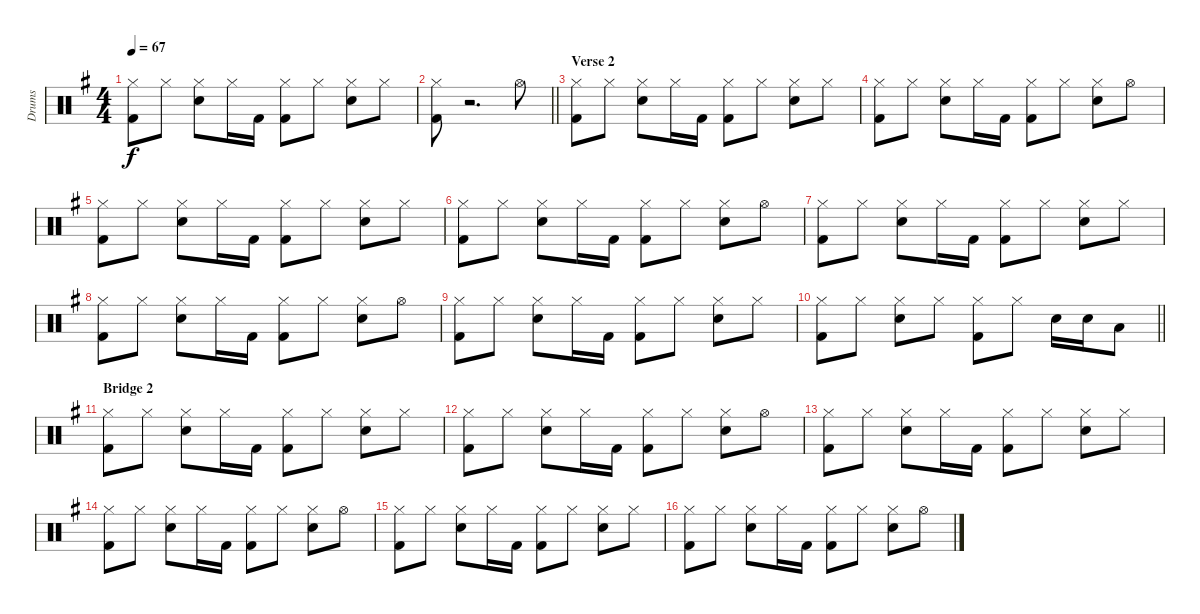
\track ("Drums" "Drums") {instrument percussion}
\staff {score}
\articulation defaults
\ts (4 4)
\tempo 67
\clef neutral
\ks g
("Hi-Hat (closed)" "Kick (hit) 2").8{dy f} "Hi-Hat (closed)".8 ("Hi-Hat (closed)" "Snare (hit) 2").8 "Hi-Hat (closed)".16 "Kick (hit) 2".16 ("Hi-Hat (closed)" "Kick (hit) 2").8 "Hi-Hat (closed)".8 ("Hi-Hat (closed)" "Snare (hit) 2").8 "Hi-Hat (closed)".8 |
\barLineRight lightlight
("Hi-Hat (closed)" "Kick (hit) 2").8 r.2{d} "Hi-Hat (open)".8 |
\section ("" "Verse 2")
("Hi-Hat (closed)" "Kick (hit) 2").8 "Hi-Hat (closed)".8 ("Hi-Hat (closed)" "Snare (hit) 2").8 "Hi-Hat (closed)".16 "Kick (hit) 2".16 ("Hi-Hat (closed)" "Kick (hit) 2").8 "Hi-Hat (closed)".8 ("Hi-Hat (closed)" "Snare (hit) 2").8 "Hi-Hat (closed)".8 |
("Hi-Hat (closed)" "Kick (hit) 2").8 "Hi-Hat (closed)".8 ("Hi-Hat (closed)" "Snare (hit) 2").8 "Hi-Hat (closed)".16 "Kick (hit) 2".16 ("Hi-Hat (closed)" "Kick (hit) 2").8 "Hi-Hat (closed)".8 ("Hi-Hat (closed)" "Snare (hit) 2").8 "Hi-Hat (open)".8 |
("Hi-Hat (closed)" "Kick (hit) 2").8 "Hi-Hat (closed)".8 ("Hi-Hat (closed)" "Snare (hit) 2").8 "Hi-Hat (closed)".16 "Kick (hit) 2".16 ("Hi-Hat (closed)" "Kick (hit) 2").8 "Hi-Hat (closed)".8 ("Hi-Hat (closed)" "Snare (hit) 2").8 "Hi-Hat (closed)".8 |
("Hi-Hat (closed)" "Kick (hit) 2").8 "Hi-Hat (closed)".8 ("Hi-Hat (closed)" "Snare (hit) 2").8 "Hi-Hat (closed)".16 "Kick (hit) 2".16 ("Hi-Hat (closed)" "Kick (hit) 2").8 "Hi-Hat (closed)".8 ("Hi-Hat (closed)" "Snare (hit) 2").8 "Hi-Hat (open)".8 |
("Hi-Hat (closed)" "Kick (hit) 2").8 "Hi-Hat (closed)".8 ("Hi-Hat (closed)" "Snare (hit) 2").8 "Hi-Hat (closed)".16 "Kick (hit) 2".16 ("Hi-Hat (closed)" "Kick (hit) 2").8 "Hi-Hat (closed)".8 ("Hi-Hat (closed)" "Snare (hit) 2").8 "Hi-Hat (closed)".8 |
("Hi-Hat (closed)" "Kick (hit) 2").8 "Hi-Hat (closed)".8 ("Hi-Hat (closed)" "Snare (hit) 2").8 "Hi-Hat (closed)".16 "Kick (hit) 2".16 ("Hi-Hat (closed)" "Kick (hit) 2").8 "Hi-Hat (closed)".8 ("Hi-Hat (closed)" "Snare (hit) 2").8 "Hi-Hat (open)".8 |
("Hi-Hat (closed)" "Kick (hit) 2").8 "Hi-Hat (closed)".8 ("Hi-Hat (closed)" "Snare (hit) 2").8 "Hi-Hat (closed)".16 "Kick (hit) 2".16 ("Hi-Hat (closed)" "Kick (hit) 2").8 "Hi-Hat (closed)".8 ("Hi-Hat (closed)" "Snare (hit) 2").8 "Hi-Hat (closed)".8 |
\barLineRight lightlight
("Hi-Hat (closed)" "Kick (hit) 2").8 "Hi-Hat (closed)".8 ("Hi-Hat (closed)" "Snare (hit) 2").8 "Hi-Hat (closed)".8 ("Hi-Hat (closed)" "Kick (hit) 2").8 "Hi-Hat (closed)".8 "Snare (hit) 2".16 "Snare (hit) 2".16 "Low Tom (hit)".8 |
\section ("" "Bridge 2")
("Hi-Hat (closed)" "Kick (hit) 2").8 "Hi-Hat (closed)".8 ("Hi-Hat (closed)" "Snare (hit) 2").8 "Hi-Hat (closed)".16 "Kick (hit) 2".16 ("Hi-Hat (closed)" "Kick (hit) 2").8 "Hi-Hat (closed)".8 ("Hi-Hat (closed)" "Snare (hit) 2").8 "Hi-Hat (closed)".8 |
("Hi-Hat (closed)" "Kick (hit) 2").8 "Hi-Hat (closed)".8 ("Hi-Hat (closed)" "Snare (hit) 2").8 "Hi-Hat (closed)".16 "Kick (hit) 2".16 ("Hi-Hat (closed)" "Kick (hit) 2").8 "Hi-Hat (closed)".8 ("Hi-Hat (closed)" "Snare (hit) 2").8 "Hi-Hat (open)".8 |
("Hi-Hat (closed)" "Kick (hit) 2").8 "Hi-Hat (closed)".8 ("Hi-Hat (closed)" "Snare (hit) 2").8 "Hi-Hat (closed)".16 "Kick (hit) 2".16 ("Hi-Hat (closed)" "Kick (hit) 2").8 "Hi-Hat (closed)".8 ("Hi-Hat (closed)" "Snare (hit) 2").8 "Hi-Hat (closed)".8 |
("Hi-Hat (closed)" "Kick (hit) 2").8 "Hi-Hat (closed)".8 ("Hi-Hat (closed)" "Snare (hit) 2").8 "Hi-Hat (closed)".16 "Kick (hit) 2".16 ("Hi-Hat (closed)" "Kick (hit) 2").8 "Hi-Hat (closed)".8 ("Hi-Hat (closed)" "Snare (hit) 2").8 "Hi-Hat (open)".8 |
("Hi-Hat (closed)" "Kick (hit) 2").8 "Hi-Hat (closed)".8 ("Hi-Hat (closed)" "Snare (hit) 2").8 "Hi-Hat (closed)".16 "Kick (hit) 2".16 ("Hi-Hat (closed)" "Kick (hit) 2").8 "Hi-Hat (closed)".8 ("Hi-Hat (closed)" "Snare (hit) 2").8 "Hi-Hat (closed)".8 |
("Hi-Hat (closed)" "Kick (hit) 2").8 "Hi-Hat (closed)".8 ("Hi-Hat (closed)" "Snare (hit) 2").8 "Hi-Hat (closed)".16 "Kick (hit) 2".16 ("Hi-Hat (closed)" "Kick (hit) 2").8 "Hi-Hat (closed)".8 ("Hi-Hat (closed)" "Snare (hit) 2").8 "Hi-Hat (open)".8
